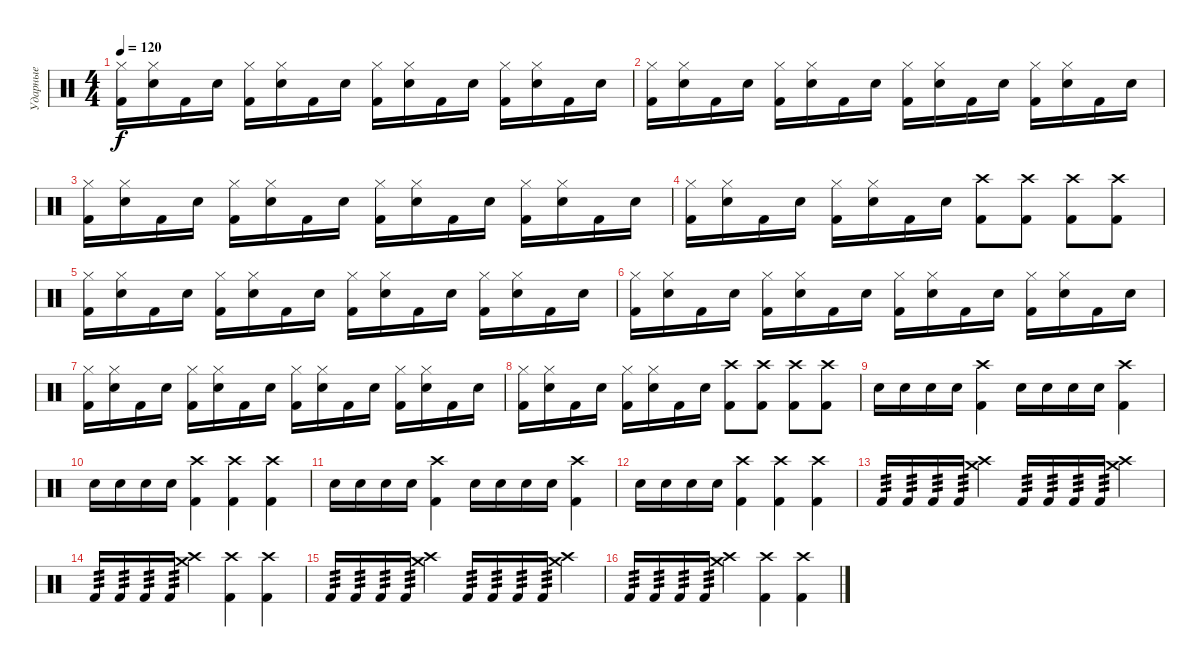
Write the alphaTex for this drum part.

\track ("Ударные" "Ударные") {instrument percussion}
\staff {score}
\articulation defaults
\ts (4 4)
\tempo 120
\clef neutral
\ks c
("Hi-Hat (closed)" "Kick (hit) 2").16{dy f} ("Hi-Hat (closed)" "Electric Snare (hit)").16 "Kick (hit) 2".16 "Electric Snare (hit)".16 ("Hi-Hat (closed)" "Kick (hit) 2").16 ("Hi-Hat (closed)" "Electric Snare (hit)").16 "Kick (hit) 2".16 "Electric Snare (hit)".16 ("Hi-Hat (closed)" "Kick (hit) 2").16 ("Hi-Hat (closed)" "Electric Snare (hit)").16 "Kick (hit) 2".16 "Electric Snare (hit)".16 ("Hi-Hat (closed)" "Kick (hit) 2").16 ("Hi-Hat (closed)" "Electric Snare (hit)").16 "Kick (hit) 2".16 "Electric Snare (hit)".16 |
("Hi-Hat (closed)" "Kick (hit) 2").16 ("Hi-Hat (closed)" "Electric Snare (hit)").16 "Kick (hit) 2".16 "Electric Snare (hit)".16 ("Hi-Hat (closed)" "Kick (hit) 2").16 ("Hi-Hat (closed)" "Electric Snare (hit)").16 "Kick (hit) 2".16 "Electric Snare (hit)".16 ("Hi-Hat (closed)" "Kick (hit) 2").16 ("Hi-Hat (closed)" "Electric Snare (hit)").16 "Kick (hit) 2".16 "Electric Snare (hit)".16 ("Hi-Hat (closed)" "Kick (hit) 2").16 ("Hi-Hat (closed)" "Electric Snare (hit)").16 "Kick (hit) 2".16 "Electric Snare (hit)".16 |
("Hi-Hat (closed)" "Kick (hit) 2").16 ("Hi-Hat (closed)" "Electric Snare (hit)").16 "Kick (hit) 2".16 "Electric Snare (hit)".16 ("Hi-Hat (closed)" "Kick (hit) 2").16 ("Hi-Hat (closed)" "Electric Snare (hit)").16 "Kick (hit) 2".16 "Electric Snare (hit)".16 ("Hi-Hat (closed)" "Kick (hit) 2").16 ("Hi-Hat (closed)" "Electric Snare (hit)").16 "Kick (hit) 2".16 "Electric Snare (hit)".16 ("Hi-Hat (closed)" "Kick (hit) 2").16 ("Hi-Hat (closed)" "Electric Snare (hit)").16 "Kick (hit) 2".16 "Electric Snare (hit)".16 |
("Hi-Hat (closed)" "Kick (hit) 2").16 ("Hi-Hat (closed)" "Electric Snare (hit)").16 "Kick (hit) 2".16 "Electric Snare (hit)".16 ("Hi-Hat (closed)" "Kick (hit) 2").16 ("Hi-Hat (closed)" "Electric Snare (hit)").16 "Kick (hit) 2".16 "Electric Snare (hit)".16 ("Crash high (hit)" "Kick (hit) 2").8 ("Crash high (hit)" "Kick (hit) 2").8 ("Crash high (hit)" "Kick (hit) 2").8 ("Crash high (hit)" "Kick (hit) 2").8 |
("Hi-Hat (closed)" "Kick (hit) 2").16 ("Hi-Hat (closed)" "Electric Snare (hit)").16 "Kick (hit) 2".16 "Electric Snare (hit)".16 ("Hi-Hat (closed)" "Kick (hit) 2").16 ("Hi-Hat (closed)" "Electric Snare (hit)").16 "Kick (hit) 2".16 "Electric Snare (hit)".16 ("Hi-Hat (closed)" "Kick (hit) 2").16 ("Hi-Hat (closed)" "Electric Snare (hit)").16 "Kick (hit) 2".16 "Electric Snare (hit)".16 ("Hi-Hat (closed)" "Kick (hit) 2").16 ("Hi-Hat (closed)" "Electric Snare (hit)").16 "Kick (hit) 2".16 "Electric Snare (hit)".16 |
("Hi-Hat (closed)" "Kick (hit) 2").16 ("Hi-Hat (closed)" "Electric Snare (hit)").16 "Kick (hit) 2".16 "Electric Snare (hit)".16 ("Hi-Hat (closed)" "Kick (hit) 2").16 ("Hi-Hat (closed)" "Electric Snare (hit)").16 "Kick (hit) 2".16 "Electric Snare (hit)".16 ("Hi-Hat (closed)" "Kick (hit) 2").16 ("Hi-Hat (closed)" "Electric Snare (hit)").16 "Kick (hit) 2".16 "Electric Snare (hit)".16 ("Hi-Hat (closed)" "Kick (hit) 2").16 ("Hi-Hat (closed)" "Electric Snare (hit)").16 "Kick (hit) 2".16 "Electric Snare (hit)".16 |
("Hi-Hat (closed)" "Kick (hit) 2").16 ("Hi-Hat (closed)" "Electric Snare (hit)").16 "Kick (hit) 2".16 "Electric Snare (hit)".16 ("Hi-Hat (closed)" "Kick (hit) 2").16 ("Hi-Hat (closed)" "Electric Snare (hit)").16 "Kick (hit) 2".16 "Electric Snare (hit)".16 ("Hi-Hat (closed)" "Kick (hit) 2").16 ("Hi-Hat (closed)" "Electric Snare (hit)").16 "Kick (hit) 2".16 "Electric Snare (hit)".16 ("Hi-Hat (closed)" "Kick (hit) 2").16 ("Hi-Hat (closed)" "Electric Snare (hit)").16 "Kick (hit) 2".16 "Electric Snare (hit)".16 |
("Hi-Hat (closed)" "Kick (hit) 2").16 ("Hi-Hat (closed)" "Electric Snare (hit)").16 "Kick (hit) 2".16 "Electric Snare (hit)".16 ("Hi-Hat (closed)" "Kick (hit) 2").16 ("Hi-Hat (closed)" "Electric Snare (hit)").16 "Kick (hit) 2".16 "Electric Snare (hit)".16 ("Crash high (hit)" "Kick (hit) 2").8 ("Crash high (hit)" "Kick (hit) 2").8 ("Crash high (hit)" "Kick (hit) 2").8 ("Crash high (hit)" "Kick (hit) 2").8 |
"Electric Snare (hit)".16 "Electric Snare (hit)".16 "Electric Snare (hit)".16 "Electric Snare (hit)".16 ("Crash high (hit)" "Kick (hit) 2").4 "Electric Snare (hit)".16 "Electric Snare (hit)".16 "Electric Snare (hit)".16 "Electric Snare (hit)".16 ("Crash high (hit)" "Kick (hit) 2").4 |
"Electric Snare (hit)".16 "Electric Snare (hit)".16 "Electric Snare (hit)".16 "Electric Snare (hit)".16 ("Crash high (hit)" "Kick (hit) 2").4 ("Crash high (hit)" "Kick (hit) 2").4 ("Kick (hit) 2" "Crash high (hit)").4 |
"Electric Snare (hit)".16 "Electric Snare (hit)".16 "Electric Snare (hit)".16 "Electric Snare (hit)".16 ("Crash high (hit)" "Kick (hit) 2").4 "Electric Snare (hit)".16 "Electric Snare (hit)".16 "Electric Snare (hit)".16 "Electric Snare (hit)".16 ("Crash high (hit)" "Kick (hit) 2").4 |
"Electric Snare (hit)".16 "Electric Snare (hit)".16 "Electric Snare (hit)".16 "Electric Snare (hit)".16 ("Crash high (hit)" "Kick (hit) 2").4 ("Crash high (hit)" "Kick (hit) 2").4 ("Kick (hit) 2" "Crash high (hit)").4 |
"Kick (hit) 2".16{tp 3} "Kick (hit) 2".16{tp 3} "Kick (hit) 2".16{tp 3} "Kick (hit) 2".16{tp 3} ("Crash medium (hit)" "Crash high (hit)").4 "Kick (hit) 2".16{tp 3} "Kick (hit) 2".16{tp 3} "Kick (hit) 2".16{tp 3} "Kick (hit) 2".16{tp 3} ("Crash medium (hit)" "Crash high (hit)").4 |
"Kick (hit) 2".16{tp 3} "Kick (hit) 2".16{tp 3} "Kick (hit) 2".16{tp 3} "Kick (hit) 2".16{tp 3} ("Crash medium (hit)" "Crash high (hit)").4 ("Crash high (hit)" "Kick (hit) 2").4 ("Kick (hit) 2" "Crash high (hit)").4 |
"Kick (hit) 2".16{tp 3} "Kick (hit) 2".16{tp 3} "Kick (hit) 2".16{tp 3} "Kick (hit) 2".16{tp 3} ("Crash medium (hit)" "Crash high (hit)").4 "Kick (hit) 2".16{tp 3} "Kick (hit) 2".16{tp 3} "Kick (hit) 2".16{tp 3} "Kick (hit) 2".16{tp 3} ("Crash medium (hit)" "Crash high (hit)").4 |
"Kick (hit) 2".16{tp 3} "Kick (hit) 2".16{tp 3} "Kick (hit) 2".16{tp 3} "Kick (hit) 2".16{tp 3} ("Crash medium (hit)" "Crash high (hit)").4 ("Crash high (hit)" "Kick (hit) 2").4 ("Kick (hit) 2" "Crash high (hit)").4
